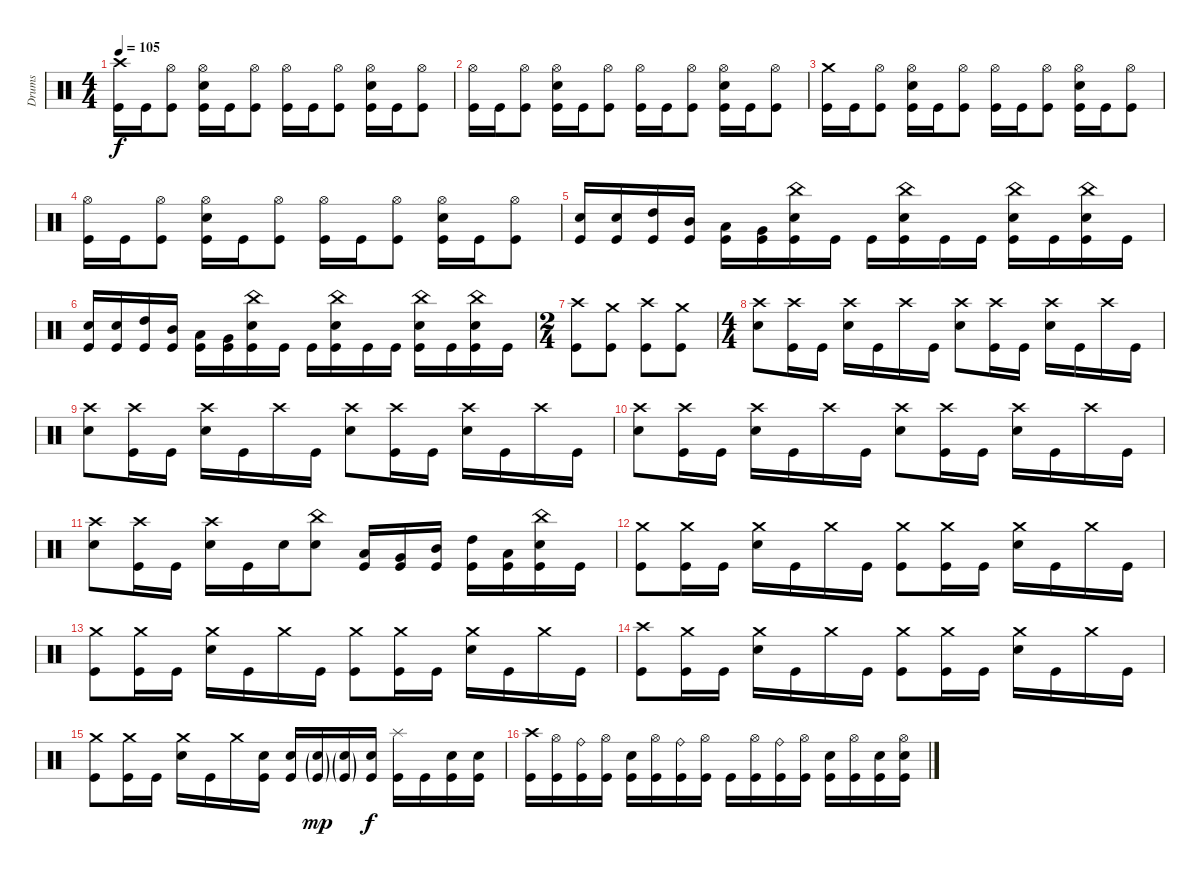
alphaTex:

\track ("Drums" "Drums") {instrument percussion}
\staff {score}
\articulation defaults
\ts (4 4)
\tempo 105
\clef neutral
\ks c
("Crash high (hit)" "Kick (hit)").16{dy f} "Kick (hit)".16 ("Hi-Hat (open)" "Kick (hit)").8 ("Hi-Hat (open)" "Electric Snare (hit)" "Kick (hit)").16 "Kick (hit)".16 ("Hi-Hat (open)" "Kick (hit)").8 ("Hi-Hat (open)" "Kick (hit)").16 "Kick (hit)".16 ("Hi-Hat (open)" "Kick (hit)").8 ("Hi-Hat (open)" "Electric Snare (hit)" "Kick (hit)").16 "Kick (hit)".16 ("Hi-Hat (open)" "Kick (hit)").8 |
("Hi-Hat (open)" "Kick (hit)").16 "Kick (hit)".16 ("Hi-Hat (open)" "Kick (hit)").8 ("Hi-Hat (open)" "Electric Snare (hit)" "Kick (hit)").16 "Kick (hit)".16 ("Hi-Hat (open)" "Kick (hit)").8 ("Hi-Hat (open)" "Kick (hit)").16 "Kick (hit)".16 ("Hi-Hat (open)" "Kick (hit)").8 ("Hi-Hat (open)" "Electric Snare (hit)" "Kick (hit)").16 "Kick (hit)".16 ("Hi-Hat (open)" "Kick (hit)").8 |
("Crash medium (hit)" "Kick (hit)").16 "Kick (hit)".16 ("Hi-Hat (open)" "Kick (hit)").8 ("Hi-Hat (open)" "Electric Snare (hit)" "Kick (hit)").16 "Kick (hit)".16 ("Hi-Hat (open)" "Kick (hit)").8 ("Hi-Hat (open)" "Kick (hit)").16 "Kick (hit)".16 ("Hi-Hat (open)" "Kick (hit)").8 ("Hi-Hat (open)" "Electric Snare (hit)" "Kick (hit)").16 "Kick (hit)".16 ("Hi-Hat (open)" "Kick (hit)").8 |
("Hi-Hat (open)" "Kick (hit)").16 "Kick (hit)".16 ("Hi-Hat (open)" "Kick (hit)").8 ("Hi-Hat (open)" "Electric Snare (hit)" "Kick (hit)").16 "Kick (hit)".16 ("Hi-Hat (open)" "Kick (hit)").8 ("Hi-Hat (open)" "Kick (hit)").16 "Kick (hit)".16 ("Hi-Hat (open)" "Kick (hit)").8 ("Hi-Hat (open)" "Electric Snare (hit)" "Kick (hit)").16 "Kick (hit)".16 ("Hi-Hat (open)" "Kick (hit)").8 |
("Electric Snare (hit)" "Kick (hit)").16 ("Electric Snare (hit)" "Kick (hit)").16 ("High Tom (hit)" "Kick (hit)").16 ("Mid Tom (hit)" "Kick (hit)").16 ("Low Tom (hit)" "Kick (hit)").16 ("Very Low Tom (hit)" "Kick (hit)").16 ("China (hit)" "Electric Snare (hit)" "Kick (hit)").16 "Kick (hit)".16 "Kick (hit)".16 ("China (hit)" "Electric Snare (hit)" "Kick (hit)").16 "Kick (hit)".16 "Kick (hit)".16 ("China (hit)" "Electric Snare (hit)" "Kick (hit)").16 "Kick (hit)".16 ("China (hit)" "Electric Snare (hit)" "Kick (hit)").16 "Kick (hit)".16 |
("Electric Snare (hit)" "Kick (hit)").16 ("Electric Snare (hit)" "Kick (hit)").16 ("High Tom (hit)" "Kick (hit)").16 ("Mid Tom (hit)" "Kick (hit)").16 ("Low Tom (hit)" "Kick (hit)").16 ("Very Low Tom (hit)" "Kick (hit)").16 ("China (hit)" "Electric Snare (hit)" "Kick (hit)").16 "Kick (hit)".16 "Kick (hit)".16 ("China (hit)" "Electric Snare (hit)" "Kick (hit)").16 "Kick (hit)".16 "Kick (hit)".16 ("China (hit)" "Electric Snare (hit)" "Kick (hit)").16 "Kick (hit)".16 ("China (hit)" "Electric Snare (hit)" "Kick (hit)").16 "Kick (hit)".16 |
\ts (2 4)
("Crash high (hit)" "Kick (hit)").8 ("Crash medium (hit)" "Kick (hit)").8 ("Crash high (hit)" "Kick (hit)").8 ("Crash medium (hit)" "Kick (hit)").8 |
\ts (4 4)
("Crash high (hit)" "Electric Snare (hit)").8 ("Crash high (hit)" "Kick (hit)").16 "Kick (hit)".16 ("Crash high (hit)" "Electric Snare (hit)").16 "Kick (hit)".16 "Crash high (hit)".16 "Kick (hit)".16 ("Crash high (hit)" "Electric Snare (hit)").8 ("Crash high (hit)" "Kick (hit)").16 "Kick (hit)".16 ("Crash high (hit)" "Electric Snare (hit)").16 "Kick (hit)".16 "Crash high (hit)".16 "Kick (hit)".16 |
("Crash high (hit)" "Electric Snare (hit)").8 ("Crash high (hit)" "Kick (hit)").16 "Kick (hit)".16 ("Crash high (hit)" "Electric Snare (hit)").16 "Kick (hit)".16 "Crash high (hit)".16 "Kick (hit)".16 ("Crash high (hit)" "Electric Snare (hit)").8 ("Crash high (hit)" "Kick (hit)").16 "Kick (hit)".16 ("Crash high (hit)" "Electric Snare (hit)").16 "Kick (hit)".16 "Crash high (hit)".16 "Kick (hit)".16 |
("Crash high (hit)" "Electric Snare (hit)").8 ("Crash high (hit)" "Kick (hit)").16 "Kick (hit)".16 ("Crash high (hit)" "Electric Snare (hit)").16 "Kick (hit)".16 "Crash high (hit)".16 "Kick (hit)".16 ("Crash high (hit)" "Electric Snare (hit)").8 ("Crash high (hit)" "Kick (hit)").16 "Kick (hit)".16 ("Crash high (hit)" "Electric Snare (hit)").16 "Kick (hit)".16 "Crash high (hit)".16 "Kick (hit)".16 |
("Crash high (hit)" "Electric Snare (hit)").8 ("Crash high (hit)" "Kick (hit)").16 "Kick (hit)".16 ("Crash high (hit)" "Electric Snare (hit)").16 "Kick (hit)".16 "Electric Snare (hit)".16 ("China (hit)" "Electric Snare (hit)").8 ("Low Tom (hit)" "Kick (hit)").16 ("Very Low Tom (hit)" "Kick (hit)").16 ("Mid Tom (hit)" "Kick (hit)").16 ("High Tom (hit)" "Kick (hit)").16 ("Low Tom (hit)" "Kick (hit)").16 ("China (hit)" "Electric Snare (hit)" "Kick (hit)").16 "Kick (hit)".16 |
("Crash medium (hit)" "Kick (hit)").8 ("Crash medium (hit)" "Kick (hit)").16 "Kick (hit)".16 ("Crash medium (hit)" "Electric Snare (hit)").16 "Kick (hit)".16 "Crash medium (hit)".16 "Kick (hit)".16 ("Crash medium (hit)" "Kick (hit)").8 ("Crash medium (hit)" "Kick (hit)").16 "Kick (hit)".16 ("Crash medium (hit)" "Electric Snare (hit)").16 "Kick (hit)".16 "Crash medium (hit)".16 "Kick (hit)".16 |
("Crash medium (hit)" "Kick (hit)").8 ("Crash medium (hit)" "Kick (hit)").16 "Kick (hit)".16 ("Crash medium (hit)" "Electric Snare (hit)").16 "Kick (hit)".16 "Crash medium (hit)".16 "Kick (hit)".16 ("Crash medium (hit)" "Kick (hit)").8 ("Crash medium (hit)" "Kick (hit)").16 "Kick (hit)".16 ("Crash medium (hit)" "Electric Snare (hit)").16 "Kick (hit)".16 "Crash medium (hit)".16 "Kick (hit)".16 |
("Crash high (hit)" "Kick (hit)").8 ("Crash medium (hit)" "Kick (hit)").16 "Kick (hit)".16 ("Crash medium (hit)" "Electric Snare (hit)").16 "Kick (hit)".16 "Crash medium (hit)".16 "Kick (hit)".16 ("Crash medium (hit)" "Kick (hit)").8 ("Crash medium (hit)" "Kick (hit)").16 "Kick (hit)".16 ("Crash medium (hit)" "Electric Snare (hit)").16 "Kick (hit)".16 "Crash medium (hit)".16 "Kick (hit)".16 |
("Crash medium (hit)" "Kick (hit)").8 ("Crash medium (hit)" "Kick (hit)").16 "Kick (hit)".16 ("Crash medium (hit)" "Electric Snare (hit)").16 "Kick (hit)".16 "Crash medium (hit)".16 ("Electric Snare (hit)" "Kick (hit)").16 ("Electric Snare (hit)" "Kick (hit)").16 ("Electric Snare (hit)"{g} "Kick (hit)"{g}).16{dy mp} ("Electric Snare (hit)"{g} "Kick (hit)"{g}).16 ("Electric Snare (hit)" "Kick (hit)").16{dy f} ("Splash (hit)" "Kick (hit)").16 "Kick (hit)".16 ("Electric Snare (hit)" "Kick (hit)").16 ("Electric Snare (hit)" "Kick (hit)").16 |
("Crash high (hit)" "Kick (hit)").16 ("Hi-Hat (open)" "Kick (hit)").16 ("Ride (bell)" "Kick (hit)").16 ("Hi-Hat (open)" "Kick (hit)").16 ("Electric Snare (hit)" "Kick (hit)").16 ("Hi-Hat (open)" "Kick (hit)").16 ("Ride (bell)" "Kick (hit)").16 ("Hi-Hat (open)" "Kick (hit)").16 "Kick (hit)".16 ("Hi-Hat (open)" "Kick (hit)").16 ("Ride (bell)" "Kick (hit)").16 ("Hi-Hat (open)" "Kick (hit)").16 ("Electric Snare (hit)" "Kick (hit)").16 ("Hi-Hat (open)" "Kick (hit)").16 ("Electric Snare (hit)" "Kick (hit)").16 ("Hi-Hat (open)" "Electric Snare (hit)" "Kick (hit)").16
